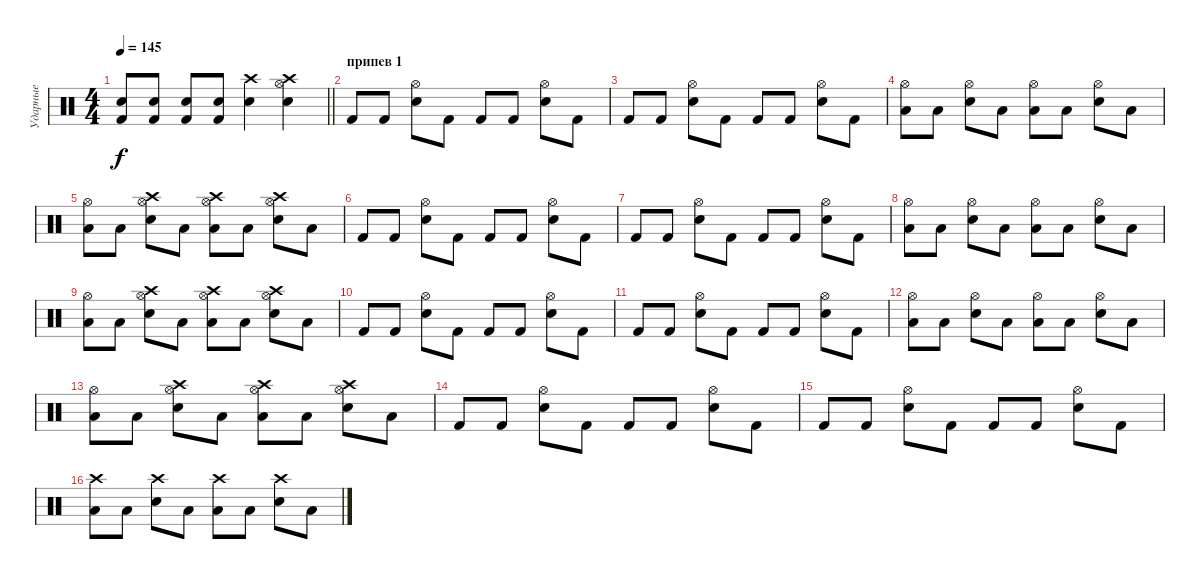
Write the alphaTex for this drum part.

\track ("Ударные" "Ударные") {instrument percussion}
\staff {score}
\articulation defaults
\ts (4 4)
\tempo 145
\clef neutral
\barLineRight lightlight
\ks c
("Electric Snare (hit)" "Kick (hit) 2").8{dy f} ("Electric Snare (hit)" "Kick (hit) 2").8 ("Electric Snare (hit)" "Kick (hit) 2").8 ("Electric Snare (hit)" "Kick (hit) 2").8 ("Crash high (hit)" "Electric Snare (hit)").4 ("Hi-Hat (open)" "Crash high (hit)" "Electric Snare (hit)").4 |
\section ("" "припев 1")
"Kick (hit) 2".8 "Kick (hit) 2".8 ("Hi-Hat (open)" "Electric Snare (hit)").8 "Kick (hit) 2".8 "Kick (hit) 2".8 "Kick (hit) 2".8 ("Hi-Hat (open)" "Electric Snare (hit)").8 "Kick (hit) 2".8 |
"Kick (hit) 2".8 "Kick (hit) 2".8 ("Hi-Hat (open)" "Electric Snare (hit)").8 "Kick (hit) 2".8 "Kick (hit) 2".8 "Kick (hit) 2".8 ("Hi-Hat (open)" "Electric Snare (hit)").8 "Kick (hit) 2".8 |
("Hi-Hat (open)" "Low Tom (hit)").8 "Low Tom (hit)".8 ("Hi-Hat (open)" "Electric Snare (hit)").8 "Low Tom (hit)".8 ("Hi-Hat (open)" "Low Tom (hit)").8 "Low Tom (hit)".8 ("Hi-Hat (open)" "Electric Snare (hit)").8 "Low Tom (hit)".8 |
("Hi-Hat (open)" "Low Tom (hit)").8 "Low Tom (hit)".8 ("Crash high (hit)" "Hi-Hat (open)" "Electric Snare (hit)").8 "Low Tom (hit)".8 ("Crash high (hit)" "Hi-Hat (open)" "Low Tom (hit)").8 "Low Tom (hit)".8 ("Crash high (hit)" "Hi-Hat (open)" "Electric Snare (hit)").8 "Low Tom (hit)".8 |
"Kick (hit) 2".8 "Kick (hit) 2".8 ("Hi-Hat (open)" "Electric Snare (hit)").8 "Kick (hit) 2".8 "Kick (hit) 2".8 "Kick (hit) 2".8 ("Hi-Hat (open)" "Electric Snare (hit)").8 "Kick (hit) 2".8 |
"Kick (hit) 2".8 "Kick (hit) 2".8 ("Hi-Hat (open)" "Electric Snare (hit)").8 "Kick (hit) 2".8 "Kick (hit) 2".8 "Kick (hit) 2".8 ("Hi-Hat (open)" "Electric Snare (hit)").8 "Kick (hit) 2".8 |
("Hi-Hat (open)" "Low Tom (hit)").8 "Low Tom (hit)".8 ("Hi-Hat (open)" "Electric Snare (hit)").8 "Low Tom (hit)".8 ("Hi-Hat (open)" "Low Tom (hit)").8 "Low Tom (hit)".8 ("Hi-Hat (open)" "Electric Snare (hit)").8 "Low Tom (hit)".8 |
("Hi-Hat (open)" "Low Tom (hit)").8 "Low Tom (hit)".8 ("Crash high (hit)" "Hi-Hat (open)" "Electric Snare (hit)").8 "Low Tom (hit)".8 ("Crash high (hit)" "Hi-Hat (open)" "Low Tom (hit)").8 "Low Tom (hit)".8 ("Crash high (hit)" "Hi-Hat (open)" "Electric Snare (hit)").8 "Low Tom (hit)".8 |
"Kick (hit) 2".8 "Kick (hit) 2".8 ("Hi-Hat (open)" "Electric Snare (hit)").8 "Kick (hit) 2".8 "Kick (hit) 2".8 "Kick (hit) 2".8 ("Hi-Hat (open)" "Electric Snare (hit)").8 "Kick (hit) 2".8 |
"Kick (hit) 2".8 "Kick (hit) 2".8 ("Hi-Hat (open)" "Electric Snare (hit)").8 "Kick (hit) 2".8 "Kick (hit) 2".8 "Kick (hit) 2".8 ("Hi-Hat (open)" "Electric Snare (hit)").8 "Kick (hit) 2".8 |
("Hi-Hat (open)" "Low Tom (hit)").8 "Low Tom (hit)".8 ("Hi-Hat (open)" "Electric Snare (hit)").8 "Low Tom (hit)".8 ("Hi-Hat (open)" "Low Tom (hit)").8 "Low Tom (hit)".8 ("Hi-Hat (open)" "Electric Snare (hit)").8 "Low Tom (hit)".8 |
("Hi-Hat (open)" "Low Tom (hit)").8 "Low Tom (hit)".8 ("Crash high (hit)" "Hi-Hat (open)" "Electric Snare (hit)").8 "Low Tom (hit)".8 ("Crash high (hit)" "Hi-Hat (open)" "Low Tom (hit)").8 "Low Tom (hit)".8 ("Crash high (hit)" "Hi-Hat (open)" "Electric Snare (hit)").8 "Low Tom (hit)".8 |
"Kick (hit) 2".8 "Kick (hit) 2".8 ("Hi-Hat (open)" "Electric Snare (hit)").8 "Kick (hit) 2".8 "Kick (hit) 2".8 "Kick (hit) 2".8 ("Hi-Hat (open)" "Electric Snare (hit)").8 "Kick (hit) 2".8 |
"Kick (hit) 2".8 "Kick (hit) 2".8 ("Hi-Hat (open)" "Electric Snare (hit)").8 "Kick (hit) 2".8 "Kick (hit) 2".8 "Kick (hit) 2".8 ("Hi-Hat (open)" "Electric Snare (hit)").8 "Kick (hit) 2".8 |
("Crash high (hit)" "Low Tom (hit)").8 "Low Tom (hit)".8 ("Crash high (hit)" "Electric Snare (hit)").8 "Low Tom (hit)".8 ("Crash high (hit)" "Low Tom (hit)").8 "Low Tom (hit)".8 ("Crash high (hit)" "Electric Snare (hit)").8 "Low Tom (hit)".8
